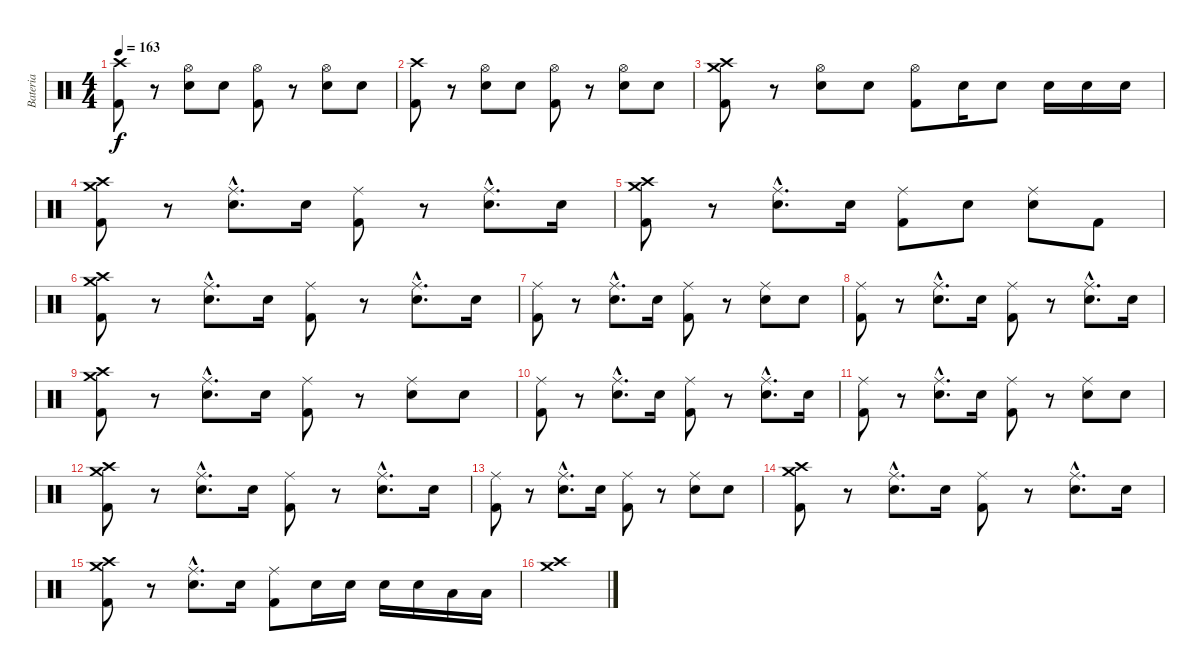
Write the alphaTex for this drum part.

\track ("Bateria" "Bateria") {instrument percussion}
\staff {score}
\articulation defaults
\ts (4 4)
\tempo 163
\clef neutral
\ks c
("Crash high (hit)" "Kick (hit) 2").8{dy f} r.8 ("Hi-Hat (open)" "Snare (hit) 2").8 "Snare (hit) 2".8 ("Hi-Hat (open)" "Kick (hit) 2").8 r.8 ("Hi-Hat (open)" "Snare (hit) 2").8 "Snare (hit) 2".8 |
("Crash high (hit)" "Kick (hit) 2").8 r.8 ("Hi-Hat (open)" "Snare (hit) 2").8 "Snare (hit) 2".8 ("Hi-Hat (open)" "Kick (hit) 2").8 r.8 ("Hi-Hat (open)" "Snare (hit) 2").8 "Snare (hit) 2".8 |
("Crash high (hit)" "Crash medium (hit)" "Kick (hit) 2").8 r.8 ("Hi-Hat (open)" "Snare (hit) 2").8 "Snare (hit) 2".8 ("Hi-Hat (open)" "Kick (hit) 2").8 "Snare (hit) 2".16 "Snare (hit) 2".8 "Snare (hit) 2".16 "Snare (hit) 2".16 "Snare (hit) 2".16 |
("Crash high (hit)" "Crash medium (hit)" "Kick (hit) 2").8 r.8 ("Ride (middle)"{hac} "Snare (hit) 2"{hac}).8{d} "Snare (hit) 2".16 ("Ride (middle)" "Kick (hit) 2").8 r.8 ("Ride (middle)"{hac} "Snare (hit) 2"{hac}).8{d} "Snare (hit) 2".16 |
("Crash high (hit)" "Crash medium (hit)" "Kick (hit) 2").8 r.8 ("Ride (middle)"{hac} "Snare (hit) 2"{hac}).8{d} "Snare (hit) 2".16 ("Ride (middle)" "Kick (hit) 2").8 "Snare (hit) 2".8 ("Ride (middle)" "Snare (hit) 2").8 "Kick (hit) 2".8 |
("Crash high (hit)" "Crash medium (hit)" "Kick (hit) 2").8 r.8 ("Ride (middle)"{hac} "Snare (hit) 2"{hac}).8{d} "Snare (hit) 2".16 ("Ride (middle)" "Kick (hit) 2").8 r.8 ("Ride (middle)"{hac} "Snare (hit) 2"{hac}).8{d} "Snare (hit) 2".16 |
("Ride (middle)" "Kick (hit) 2").8 r.8 ("Ride (middle)"{hac} "Snare (hit) 2"{hac}).8{d} "Snare (hit) 2".16 ("Ride (middle)" "Kick (hit) 2").8 r.8 ("Ride (middle)" "Snare (hit) 2").8 "Snare (hit) 2".8 |
("Ride (middle)" "Kick (hit) 2").8 r.8 ("Ride (middle)"{hac} "Snare (hit) 2"{hac}).8{d} "Snare (hit) 2".16 ("Ride (middle)" "Kick (hit) 2").8 r.8 ("Ride (middle)"{hac} "Snare (hit) 2"{hac}).8{d} "Snare (hit) 2".16 |
("Crash high (hit)" "Crash medium (hit)" "Kick (hit) 2").8 r.8 ("Ride (middle)"{hac} "Snare (hit) 2"{hac}).8{d} "Snare (hit) 2".16 ("Ride (middle)" "Kick (hit) 2").8 r.8 ("Ride (middle)" "Snare (hit) 2").8 "Snare (hit) 2".8 |
("Ride (middle)" "Kick (hit) 2").8 r.8 ("Ride (middle)"{hac} "Snare (hit) 2"{hac}).8{d} "Snare (hit) 2".16 ("Ride (middle)" "Kick (hit) 2").8 r.8 ("Ride (middle)"{hac} "Snare (hit) 2"{hac}).8{d} "Snare (hit) 2".16 |
("Ride (middle)" "Kick (hit) 2").8 r.8 ("Ride (middle)"{hac} "Snare (hit) 2"{hac}).8{d} "Snare (hit) 2".16 ("Ride (middle)" "Kick (hit) 2").8 r.8 ("Ride (middle)" "Snare (hit) 2").8 "Snare (hit) 2".8 |
("Crash high (hit)" "Crash medium (hit)" "Kick (hit) 2").8 r.8 ("Ride (middle)"{hac} "Snare (hit) 2"{hac}).8{d} "Snare (hit) 2".16 ("Ride (middle)" "Kick (hit) 2").8 r.8 ("Ride (middle)"{hac} "Snare (hit) 2"{hac}).8{d} "Snare (hit) 2".16 |
("Ride (middle)" "Kick (hit) 2").8 r.8 ("Ride (middle)"{hac} "Snare (hit) 2"{hac}).8{d} "Snare (hit) 2".16 ("Ride (middle)" "Kick (hit) 2").8 r.8 ("Ride (middle)" "Snare (hit) 2").8 "Snare (hit) 2".8 |
("Crash high (hit)" "Crash medium (hit)" "Kick (hit) 2").8 r.8 ("Ride (middle)"{hac} "Snare (hit) 2"{hac}).8{d} "Snare (hit) 2".16 ("Ride (middle)" "Kick (hit) 2").8 r.8 ("Ride (middle)"{hac} "Snare (hit) 2"{hac}).8{d} "Snare (hit) 2".16 |
("Crash high (hit)" "Crash medium (hit)" "Kick (hit) 2").8 r.8 ("Ride (middle)"{hac} "Snare (hit) 2"{hac}).8{d} "Snare (hit) 2".16 ("Ride (middle)" "Kick (hit) 2").8 "Snare (hit) 2".16 "Snare (hit) 2".16 "Snare (hit) 2".16 "Snare (hit) 2".16 "Low Tom (hit)".16 "Low Tom (hit)".16 |
("Crash high (hit)" "Crash medium (hit)").1
